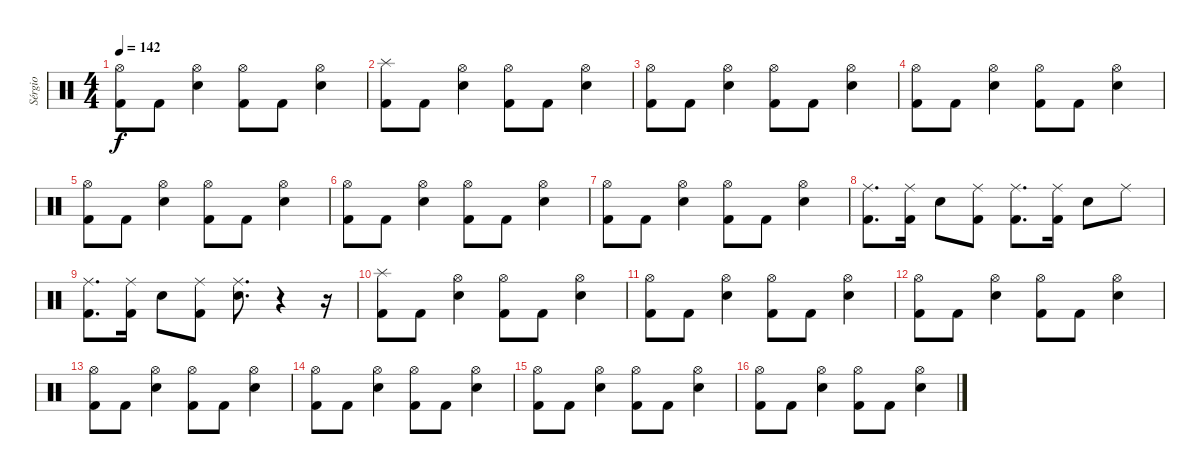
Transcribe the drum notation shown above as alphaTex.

\track ("Sérgio" "Sérgio") {instrument percussion}
\staff {score}
\articulation defaults
\ts (4 4)
\tempo 142
\clef neutral
\ks c
("Hi-Hat (open)" "Kick (hit) 2").8{dy f} "Kick (hit) 2".8 ("Hi-Hat (open)" "Snare (hit) 2").4 ("Hi-Hat (open)" "Kick (hit) 2").8 "Kick (hit) 2".8 ("Hi-Hat (open)" "Snare (hit) 2").4 |
("Splash (hit)" "Kick (hit) 2").8 "Kick (hit) 2".8 ("Hi-Hat (open)" "Snare (hit) 2").4 ("Hi-Hat (open)" "Kick (hit) 2").8 "Kick (hit) 2".8 ("Hi-Hat (open)" "Snare (hit) 2").4 |
("Hi-Hat (open)" "Kick (hit) 2").8 "Kick (hit) 2".8 ("Hi-Hat (open)" "Snare (hit) 2").4 ("Hi-Hat (open)" "Kick (hit) 2").8 "Kick (hit) 2".8 ("Hi-Hat (open)" "Snare (hit) 2").4 |
("Hi-Hat (open)" "Kick (hit) 2").8 "Kick (hit) 2".8 ("Hi-Hat (open)" "Snare (hit) 2").4 ("Hi-Hat (open)" "Kick (hit) 2").8 "Kick (hit) 2".8 ("Hi-Hat (open)" "Snare (hit) 2").4 |
("Hi-Hat (open)" "Kick (hit) 2").8 "Kick (hit) 2".8 ("Hi-Hat (open)" "Snare (hit) 2").4 ("Hi-Hat (open)" "Kick (hit) 2").8 "Kick (hit) 2".8 ("Hi-Hat (open)" "Snare (hit) 2").4 |
("Hi-Hat (open)" "Kick (hit) 2").8 "Kick (hit) 2".8 ("Hi-Hat (open)" "Snare (hit) 2").4 ("Hi-Hat (open)" "Kick (hit) 2").8 "Kick (hit) 2".8 ("Hi-Hat (open)" "Snare (hit) 2").4 |
("Hi-Hat (open)" "Kick (hit) 2").8 "Kick (hit) 2".8 ("Hi-Hat (open)" "Snare (hit) 2").4 ("Hi-Hat (open)" "Kick (hit) 2").8 "Kick (hit) 2".8 ("Hi-Hat (open)" "Snare (hit) 2").4 |
("Ride (middle)" "Kick (hit) 2").8{d} ("Ride (middle)" "Kick (hit) 2").16 "Snare (hit) 2".8 ("Ride (middle)" "Kick (hit) 2").8 ("Ride (middle)" "Kick (hit) 2").8{d} ("Ride (middle)" "Kick (hit) 2").16 "Snare (hit) 2".8 "Ride (middle)".8 |
("Ride (middle)" "Kick (hit) 2").8{d} ("Ride (middle)" "Kick (hit) 2").16 "Snare (hit) 2".8 ("Ride (middle)" "Kick (hit) 2").8 ("Ride (middle)" "Snare (hit) 2").8{d} r.4 r.16 |
("Splash (hit)" "Kick (hit) 2").8 "Kick (hit) 2".8 ("Hi-Hat (open)" "Snare (hit) 2").4 ("Hi-Hat (open)" "Kick (hit) 2").8 "Kick (hit) 2".8 ("Hi-Hat (open)" "Snare (hit) 2").4 |
("Hi-Hat (open)" "Kick (hit) 2").8 "Kick (hit) 2".8 ("Hi-Hat (open)" "Snare (hit) 2").4 ("Hi-Hat (open)" "Kick (hit) 2").8 "Kick (hit) 2".8 ("Hi-Hat (open)" "Snare (hit) 2").4 |
("Hi-Hat (open)" "Kick (hit) 2").8 "Kick (hit) 2".8 ("Hi-Hat (open)" "Snare (hit) 2").4 ("Hi-Hat (open)" "Kick (hit) 2").8 "Kick (hit) 2".8 ("Hi-Hat (open)" "Snare (hit) 2").4 |
("Hi-Hat (open)" "Kick (hit) 2").8 "Kick (hit) 2".8 ("Hi-Hat (open)" "Snare (hit) 2").4 ("Hi-Hat (open)" "Kick (hit) 2").8 "Kick (hit) 2".8 ("Hi-Hat (open)" "Snare (hit) 2").4 |
("Hi-Hat (open)" "Kick (hit) 2").8 "Kick (hit) 2".8 ("Hi-Hat (open)" "Snare (hit) 2").4 ("Hi-Hat (open)" "Kick (hit) 2").8 "Kick (hit) 2".8 ("Hi-Hat (open)" "Snare (hit) 2").4 |
("Hi-Hat (open)" "Kick (hit) 2").8 "Kick (hit) 2".8 ("Hi-Hat (open)" "Snare (hit) 2").4 ("Hi-Hat (open)" "Kick (hit) 2").8 "Kick (hit) 2".8 ("Hi-Hat (open)" "Snare (hit) 2").4 |
("Hi-Hat (open)" "Kick (hit) 2").8 "Kick (hit) 2".8 ("Hi-Hat (open)" "Snare (hit) 2").4 ("Hi-Hat (open)" "Kick (hit) 2").8 "Kick (hit) 2".8 ("Hi-Hat (open)" "Snare (hit) 2").4
